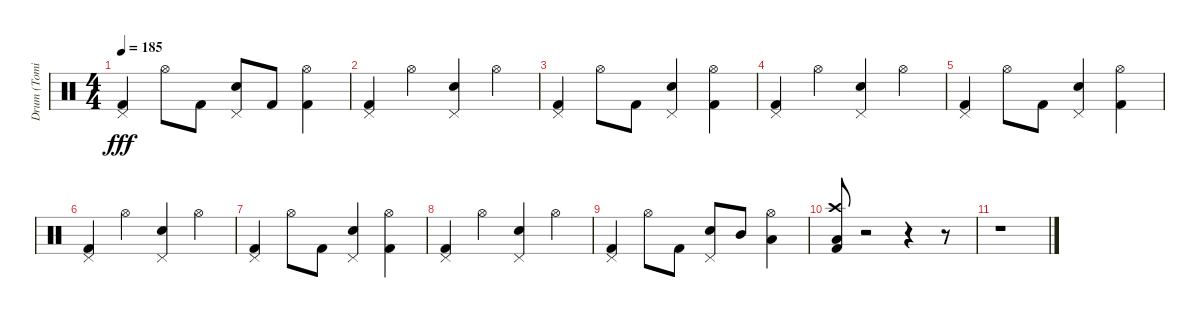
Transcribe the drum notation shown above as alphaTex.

\track ("Drum (Tomi)" "Drum (Tomi") {instrument percussion}
\staff {score}
\articulation defaults
\ts (4 4)
\tempo 185
\clef neutral
\ks c
("Pedal Hi-Hat (hit)" "Kick (hit) 2").4{dy fff} "Hi-Hat (open)".8 "Kick (hit) 2".8 ("Pedal Hi-Hat (hit)" "Electric Snare (hit)").8 "Kick (hit) 2".8 ("Hi-Hat (open)" "Kick (hit) 2").4 |
("Pedal Hi-Hat (hit)" "Kick (hit) 2").4 "Hi-Hat (open)".4 ("Pedal Hi-Hat (hit)" "Electric Snare (hit)").4 "Hi-Hat (open)".4 |
("Kick (hit) 2" "Pedal Hi-Hat (hit)").4 "Hi-Hat (open)".8 "Kick (hit) 2".8 ("Pedal Hi-Hat (hit)" "Electric Snare (hit)").4 ("Hi-Hat (open)" "Kick (hit) 2").4 |
("Pedal Hi-Hat (hit)" "Kick (hit) 2").4 "Hi-Hat (open)".4 ("Pedal Hi-Hat (hit)" "Electric Snare (hit)").4 "Hi-Hat (open)".4 |
("Kick (hit) 2" "Pedal Hi-Hat (hit)").4 "Hi-Hat (open)".8 "Kick (hit) 2".8 ("Pedal Hi-Hat (hit)" "Electric Snare (hit)").4 ("Hi-Hat (open)" "Kick (hit) 2").4 |
("Pedal Hi-Hat (hit)" "Kick (hit) 2").4 "Hi-Hat (open)".4 ("Pedal Hi-Hat (hit)" "Electric Snare (hit)").4 "Hi-Hat (open)".4 |
("Kick (hit) 2" "Pedal Hi-Hat (hit)").4 "Hi-Hat (open)".8 "Kick (hit) 2".8 ("Pedal Hi-Hat (hit)" "Electric Snare (hit)").4 ("Hi-Hat (open)" "Kick (hit) 2").4 |
("Pedal Hi-Hat (hit)" "Kick (hit) 2").4 "Hi-Hat (open)".4 ("Pedal Hi-Hat (hit)" "Electric Snare (hit)").4 "Hi-Hat (open)".4 |
("Kick (hit) 2" "Pedal Hi-Hat (hit)").4 "Hi-Hat (open)".8 "Kick (hit) 2".8 ("Pedal Hi-Hat (hit)" "Electric Snare (hit)").8 "Mid Tom (hit)".8 ("Hi-Hat (open)" "Low Tom (hit)").4 |
("Crash high (hit)" "Low Floor Tom (hit)" "Kick (hit) 2").8 r.2 r.4 r.8 |
r.1
